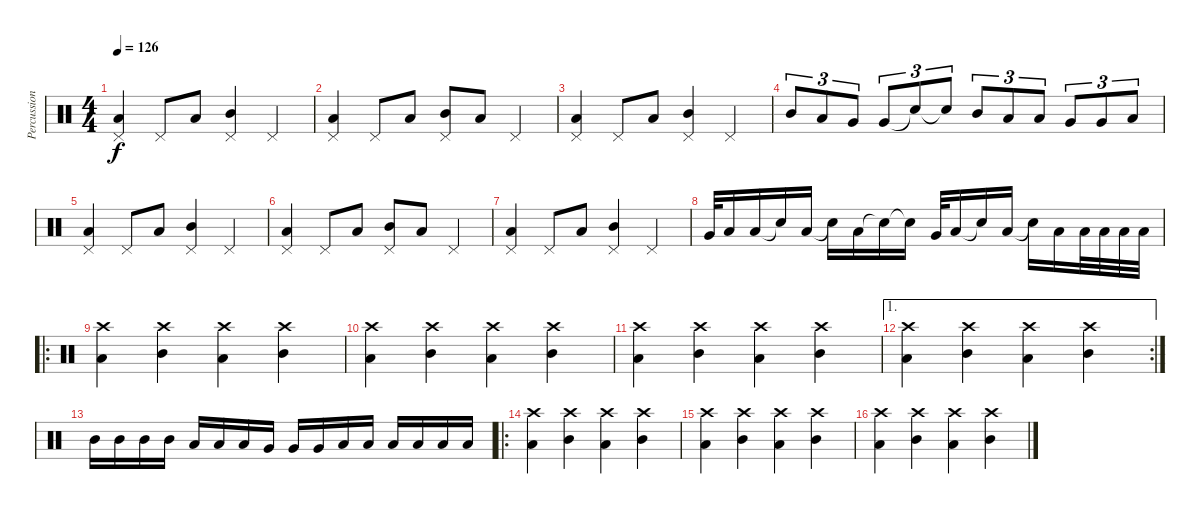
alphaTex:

\track ("Percussion" "Percussion") {instrument percussion}
\staff {score}
\articulation defaults
\ts (4 4)
\tempo 126
\clef neutral
\ks c
("Pedal Hi-Hat (hit)" "Low Tom (hit)").4{dy f} "Pedal Hi-Hat (hit)".8 "Low Tom (hit)".8 ("Pedal Hi-Hat (hit)" "Mid Tom (hit)").4 "Pedal Hi-Hat (hit)".4 |
("Pedal Hi-Hat (hit)" "Low Tom (hit)").4 "Pedal Hi-Hat (hit)".8 "Low Tom (hit)".8 ("Pedal Hi-Hat (hit)" "Mid Tom (hit)").8 "Low Tom (hit)".8 "Pedal Hi-Hat (hit)".4 |
("Pedal Hi-Hat (hit)" "Low Tom (hit)").4 "Pedal Hi-Hat (hit)".8 "Low Tom (hit)".8 ("Pedal Hi-Hat (hit)" "Mid Tom (hit)").4 "Pedal Hi-Hat (hit)".4 |
"Mid Tom (hit)".8{tu (3 2)} "Low Tom (hit)".8{tu (3 2)} "Very Low Tom (hit)".8{tu (3 2)} "Very Low Tom (hit)".8{tu (3 2)} "Snare (hit)"{t}.8{tu (3 2)} "Snare (hit)"{t}.8{tu (3 2)} "Mid Tom (hit)".8{tu (3 2)} "Low Tom (hit)".8{tu (3 2)} "Low Tom (hit)".8{tu (3 2)} "Very Low Tom (hit)".8{tu (3 2)} "Very Low Tom (hit)".8{tu (3 2)} "Low Floor Tom (hit)".8{tu (3 2)} |
("Pedal Hi-Hat (hit)" "Low Tom (hit)").4 "Pedal Hi-Hat (hit)".8 "Low Tom (hit)".8 ("Pedal Hi-Hat (hit)" "Mid Tom (hit)").4 "Pedal Hi-Hat (hit)".4 |
("Pedal Hi-Hat (hit)" "Low Tom (hit)").4 "Pedal Hi-Hat (hit)".8 "Low Tom (hit)".8 ("Pedal Hi-Hat (hit)" "Mid Tom (hit)").8 "Low Tom (hit)".8 "Pedal Hi-Hat (hit)".4 |
("Pedal Hi-Hat (hit)" "Low Tom (hit)").4 "Pedal Hi-Hat (hit)".8 "Low Tom (hit)".8 ("Pedal Hi-Hat (hit)" "Mid Tom (hit)").4 "Pedal Hi-Hat (hit)".4 |
"Very Low Tom (hit)".32 "Low Tom (hit)".16 "Low Tom (hit)".16 "Snare (hit)"{t}.16 "Low Tom (hit)".16 "Snare (hit)"{t}.16 "Low Tom (hit)".16 "Snare (hit)"{t}.16 "Snare (hit)"{t}.16 "Very Low Tom (hit)".32 "Low Tom (hit)".16 "Snare (hit)"{t}.16 "Low Tom (hit)".16 "Snare (hit)"{t}.16 "Low Tom (hit)".16 "Low Tom (hit)".32 "Low Tom (hit)".32 "Low Tom (hit)".32 "Low Tom (hit)".32 |
\ro
("Low Floor Tom (hit)" "Crash high (hit)").4 ("Mid Tom (hit)" "Crash high (hit)").4 ("Low Floor Tom (hit)" "Crash high (hit)").4 ("Mid Tom (hit)" "Crash high (hit)").4 |
("Low Floor Tom (hit)" "Crash high (hit)").4 ("Mid Tom (hit)" "Crash high (hit)").4 ("Low Floor Tom (hit)" "Crash high (hit)").4 ("Mid Tom (hit)" "Crash high (hit)").4 |
("Low Floor Tom (hit)" "Crash high (hit)").4 ("Mid Tom (hit)" "Crash high (hit)").4 ("Low Floor Tom (hit)" "Crash high (hit)").4 ("Mid Tom (hit)" "Crash high (hit)").4 |
\ae 1
\rc 2
("Low Floor Tom (hit)" "Crash high (hit)").4 ("Mid Tom (hit)" "Crash high (hit)").4 ("Low Floor Tom (hit)" "Crash high (hit)").4 ("Mid Tom (hit)" "Crash high (hit)").4 |
"Mid Tom (hit)".16 "Mid Tom (hit)".16 "Mid Tom (hit)".16 "Mid Tom (hit)".16 "Low Tom (hit)".16 "Low Tom (hit)".16 "Low Tom (hit)".16 "Very Low Tom (hit)".16 "Very Low Tom (hit)".16 "Very Low Tom (hit)".16 "Low Floor Tom (hit)".16 "Low Floor Tom (hit)".16 "Low Floor Tom (hit)".16 "Low Floor Tom (hit)".16 "Low Floor Tom (hit)".16 "Low Floor Tom (hit)".16 |
\ro
("Low Floor Tom (hit)" "Crash high (hit)").4 ("Mid Tom (hit)" "Crash high (hit)").4 ("Low Floor Tom (hit)" "Crash high (hit)").4 ("Mid Tom (hit)" "Crash high (hit)").4 |
("Low Floor Tom (hit)" "Crash high (hit)").4 ("Mid Tom (hit)" "Crash high (hit)").4 ("Low Floor Tom (hit)" "Crash high (hit)").4 ("Mid Tom (hit)" "Crash high (hit)").4 |
("Low Floor Tom (hit)" "Crash high (hit)").4 ("Mid Tom (hit)" "Crash high (hit)").4 ("Low Floor Tom (hit)" "Crash high (hit)").4 ("Mid Tom (hit)" "Crash high (hit)").4
